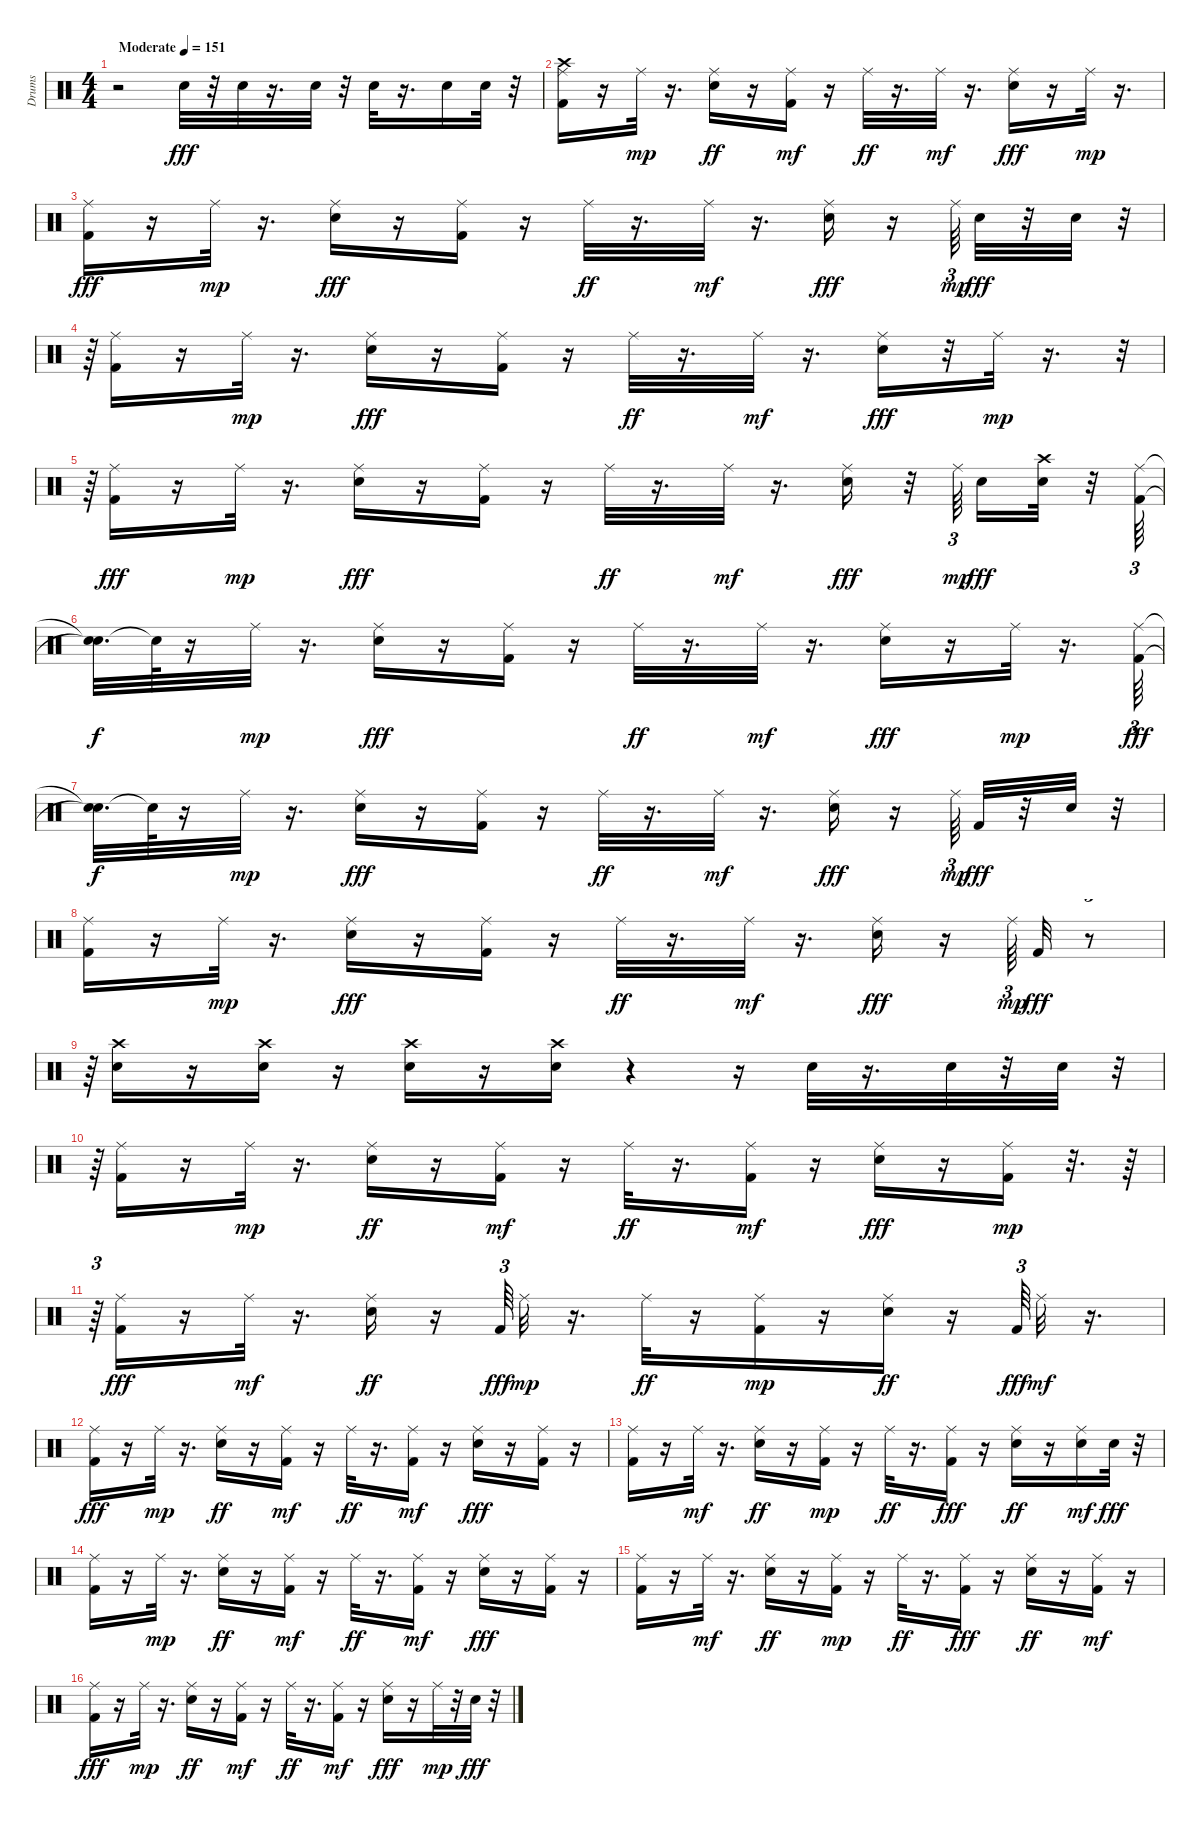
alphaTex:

\track ("Drums" "Drums") {instrument percussion}
\staff {score}
\articulation defaults
\ts (4 4)
\tempo (151 "Moderate")
\clef neutral
\ks c
r.2{dy fff} "Snare (hit) 2".32 r.32 "Snare (hit) 2".32 r.16{d} "Snare (hit) 2".32 r.32 "Snare (hit) 2".32 r.16{d} "Snare (hit) 2".16 "Snare (hit) 2".32 r.32 |
("Kick (hit) 2" "Crash high (hit)" "Ride (middle)").16 r.16 "Ride (middle)".32{dy mp} r.16{d} ("Snare (hit) 2" "Ride (middle)").16{dy ff} r.16 ("Kick (hit) 2" "Ride (middle)").16{dy mf} r.16 "Ride (middle)".32{dy ff} r.16{d} "Ride (middle)".32{dy mf} r.16{d} ("Snare (hit) 2" "Ride (middle)").16{dy fff} r.16 "Ride (middle)".32{dy mp} r.16{d} |
("Kick (hit) 2" "Ride (middle)").16{dy fff} r.16 "Ride (middle)".32{dy mp} r.16{d} ("Ride (middle)" "Snare (hit) 2").16{dy fff} r.16 ("Ride (middle)" "Kick (hit) 2").16 r.16 "Ride (middle)".32{dy ff} r.16{d} "Ride (middle)".32{dy mf} r.16{d} ("Ride (middle)" "Snare (hit) 2").16{dy fff} r.16 "Ride (middle)".64{tu (3 2) dy mp} "Snare (hit) 2".32{dy fff} r.32 "Snare (hit) 2".32 r.32{tu (3 2)} |
r.64{tu (3 2)} ("Kick (hit) 2" "Ride (middle)").16 r.16 "Ride (middle)".32{dy mp} r.16{d} ("Ride (middle)" "Snare (hit) 2").16{dy fff} r.16 ("Ride (middle)" "Kick (hit) 2").16 r.16 "Ride (middle)".32{dy ff} r.16{d} "Ride (middle)".32{dy mf} r.16{d} ("Ride (middle)" "Snare (hit) 2").16{dy fff} r.32 "Ride (middle)".32{dy mp} r.16{d} r.32{tu (3 2)} |
r.64{tu (3 2)} ("Kick (hit) 2" "Ride (middle)").16{dy fff} r.16 "Ride (middle)".32{dy mp} r.16{d} ("Ride (middle)" "Snare (hit) 2").16{dy fff} r.16 ("Ride (middle)" "Kick (hit) 2").16 r.16 "Ride (middle)".32{dy ff} r.16{d} "Ride (middle)".32{dy mf} r.16{d} ("Ride (middle)" "Snare (hit) 2").16{dy fff} r.32 "Ride (middle)".64{tu (3 2) dy mp beam splitsecondary} "Snare (hit) 2".16{dy fff} ("Crash high (hit)" "Snare (hit) 2").32 r.32 ("Kick (hit) 2" "Ride (middle)").64{tu (3 2)} |
("Snare (hit)"{t} "Snare (hit)"{t}).32{d dy f} "Snare (hit)"{t}.64 r.16 "Ride (middle)".32{dy mp} r.16{d} ("Ride (middle)" "Snare (hit) 2").16{dy fff} r.16 ("Ride (middle)" "Kick (hit) 2").16 r.16 "Ride (middle)".32{dy ff} r.16{d} "Ride (middle)".32{dy mf} r.16{d} ("Ride (middle)" "Snare (hit) 2").16{dy fff} r.16 "Ride (middle)".32{dy mp} r.16{d} ("Kick (hit) 2" "Ride (middle)").64{tu (3 2) dy fff} |
("Snare (hit)"{t} "Snare (hit)"{t}).32{d dy f} "Snare (hit)"{t}.64 r.16 "Ride (middle)".32{dy mp} r.16{d} ("Ride (middle)" "Snare (hit) 2").16{dy fff} r.16 ("Ride (middle)" "Kick (hit) 2").16 r.16 "Ride (middle)".32{dy ff} r.16{d} "Ride (middle)".32{dy mf} r.16{d} ("Ride (middle)" "Snare (hit) 2").16{dy fff} r.16 "Ride (middle)".64{tu (3 2) dy mp} "Kick (hit) 2".32{dy fff} r.32 "Snare (hit) 2".32 r.32 |
("Kick (hit) 2" "Ride (middle)").16 r.16 "Ride (middle)".32{dy mp} r.16{d} ("Ride (middle)" "Snare (hit) 2").16{dy fff} r.16 ("Ride (middle)" "Kick (hit) 2").16 r.16 "Ride (middle)".32{dy ff} r.16{d} "Ride (middle)".32{dy mf} r.16{d} ("Ride (middle)" "Snare (hit) 2").16{dy fff} r.16 "Ride (middle)".64{tu (3 2) dy mp} "Kick (hit) 2".32{dy fff} r.8{tu (3 2)} |
r.64{tu (3 2)} ("Crash high (hit)" "Snare (hit) 2").16 r.16 ("Crash high (hit)" "Snare (hit) 2").16 r.16 ("Crash high (hit)" "Snare (hit) 2").16 r.16 ("Crash high (hit)" "Snare (hit) 2").16 r.4 r.16 "Snare (hit) 2".32 r.16{d} "Snare (hit) 2".32 r.32 "Snare (hit) 2".32 r.32{tu (3 2)} |
r.64{tu (3 2)} ("Kick (hit) 2" "Ride (middle)").16 r.16 "Ride (middle)".32{dy mp} r.16{d} ("Snare (hit) 2" "Ride (middle)").16{dy ff} r.16 ("Kick (hit) 2" "Ride (middle)").16{dy mf} r.16 "Ride (middle)".32{dy ff} r.16{d} ("Kick (hit) 2" "Ride (middle)").16{dy mf} r.16 ("Snare (hit) 2" "Ride (middle)").16{dy fff} r.16 ("Kick (hit) 2" "Ride (middle)").16{dy mp} r.32{d} r.64 |
r.64{tu (3 2)} ("Kick (hit) 2" "Ride (middle)").16{dy fff} r.16 "Ride (middle)".32{dy mf} r.16{d} ("Snare (hit) 2" "Ride (middle)").16{dy ff} r.16 "Kick (hit) 2".64{tu (3 2) dy fff} "Ride (middle)".32{dy mp} r.16{d} "Ride (middle)".32{dy ff} r.16 ("Kick (hit) 2" "Ride (middle)").16{dy mp} r.16 ("Snare (hit) 2" "Ride (middle)").16{dy ff} r.16 "Kick (hit) 2".64{tu (3 2) dy fff} "Ride (middle)".32{dy mf} r.16{d} |
("Kick (hit) 2" "Ride (middle)").16{dy fff} r.16 "Ride (middle)".32{dy mp} r.16{d} ("Snare (hit) 2" "Ride (middle)").16{dy ff} r.16 ("Kick (hit) 2" "Ride (middle)").16{dy mf} r.16 "Ride (middle)".32{dy ff} r.16{d} ("Kick (hit) 2" "Ride (middle)").16{dy mf} r.16 ("Ride (middle)" "Snare (hit) 2").16{dy fff} r.16 ("Ride (middle)" "Kick (hit) 2").16 r.16 |
("Ride (middle)" "Kick (hit) 2").16 r.16 "Ride (middle)".32{dy mf} r.16{d} ("Snare (hit) 2" "Ride (middle)").16{dy ff} r.16 ("Kick (hit) 2" "Ride (middle)").16{dy mp} r.16 "Ride (middle)".32{dy ff} r.16{d} ("Ride (middle)" "Kick (hit) 2").16{dy fff} r.16 ("Snare (hit) 2" "Ride (middle)").16{dy ff} r.16 ("Snare (hit) 2" "Ride (middle)").16{dy mf} "Snare (hit) 2".32{dy fff} r.32 |
("Kick (hit) 2" "Ride (middle)").16 r.16 "Ride (middle)".32{dy mp} r.16{d} ("Snare (hit) 2" "Ride (middle)").16{dy ff} r.16 ("Kick (hit) 2" "Ride (middle)").16{dy mf} r.16 "Ride (middle)".32{dy ff} r.16{d} ("Kick (hit) 2" "Ride (middle)").16{dy mf} r.16 ("Ride (middle)" "Snare (hit) 2").16{dy fff} r.16 ("Ride (middle)" "Kick (hit) 2").16 r.16 |
("Ride (middle)" "Kick (hit) 2").16 r.16 "Ride (middle)".32{dy mf} r.16{d} ("Snare (hit) 2" "Ride (middle)").16{dy ff} r.16 ("Kick (hit) 2" "Ride (middle)").16{dy mp} r.16 "Ride (middle)".32{dy ff} r.16{d} ("Ride (middle)" "Kick (hit) 2").16{dy fff} r.16 ("Snare (hit) 2" "Ride (middle)").16{dy ff} r.16 ("Kick (hit) 2" "Ride (middle)").16{dy mf} r.16 |
("Kick (hit) 2" "Ride (middle)").16{dy fff} r.16 "Ride (middle)".32{dy mp} r.16{d} ("Snare (hit) 2" "Ride (middle)").16{dy ff} r.16 ("Kick (hit) 2" "Ride (middle)").16{dy mf} r.16 "Ride (middle)".32{dy ff} r.16{d} ("Kick (hit) 2" "Ride (middle)").16{dy mf} r.16 ("Ride (middle)" "Snare (hit) 2").16{dy fff} r.16 "Ride (middle)".32{dy mp} r.32 "Snare (hit) 2".32{dy fff} r.32
